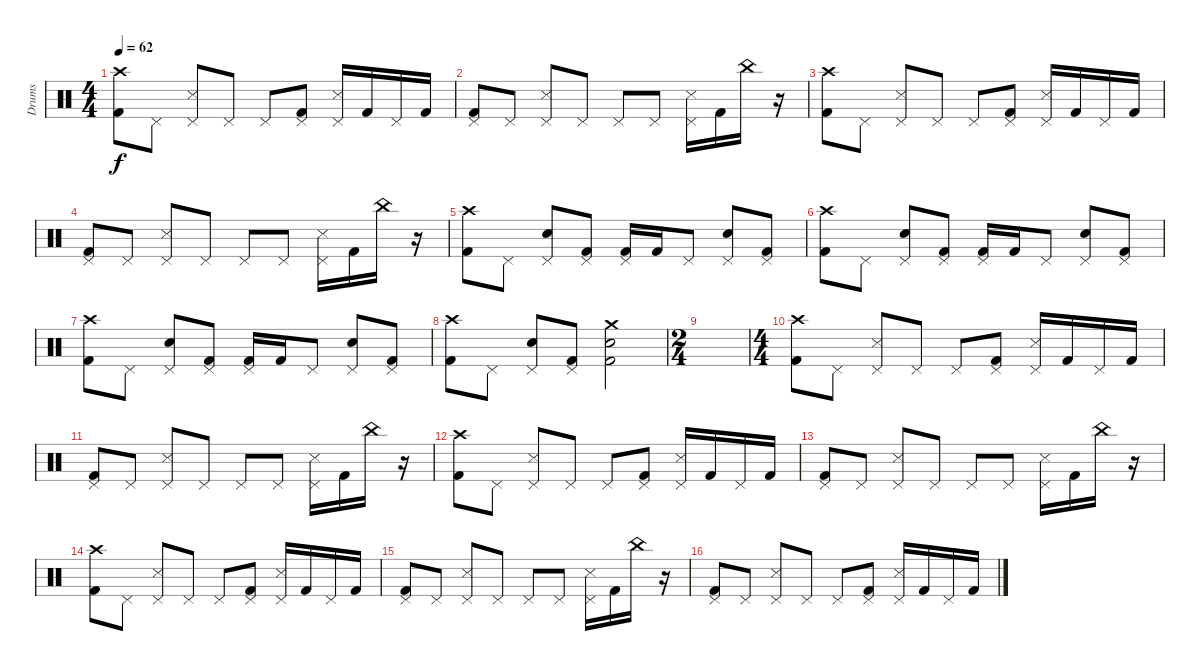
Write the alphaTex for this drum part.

\track ("Drums" "Drums") {instrument percussion}
\staff {score}
\articulation defaults
\ts (4 4)
\tempo 62
\clef neutral
\ks c
("Crash high (hit)" "Kick (hit) 2").8{dy f} "Pedal Hi-Hat (hit)".8 ("Pedal Hi-Hat (hit)" "Snare (side stick) 3").8 "Pedal Hi-Hat (hit)".8 "Pedal Hi-Hat (hit)".8 ("Pedal Hi-Hat (hit)" "Kick (hit) 2").8 ("Pedal Hi-Hat (hit)" "Snare (side stick) 3").16 "Kick (hit) 2".16 "Pedal Hi-Hat (hit)".16 "Kick (hit) 2".16 |
("Pedal Hi-Hat (hit)" "Kick (hit) 2").8 "Pedal Hi-Hat (hit)".8 ("Pedal Hi-Hat (hit)" "Snare (side stick) 3").8 "Pedal Hi-Hat (hit)".8 "Pedal Hi-Hat (hit)".8 "Pedal Hi-Hat (hit)".8 ("Pedal Hi-Hat (hit)" "Snare (side stick) 3").16 "Kick (hit) 2".16 "China (hit)".16 r.16 |
("Crash high (hit)" "Kick (hit) 2").8 "Pedal Hi-Hat (hit)".8 ("Pedal Hi-Hat (hit)" "Snare (side stick) 3").8 "Pedal Hi-Hat (hit)".8 "Pedal Hi-Hat (hit)".8 ("Pedal Hi-Hat (hit)" "Kick (hit) 2").8 ("Pedal Hi-Hat (hit)" "Snare (side stick) 3").16 "Kick (hit) 2".16 "Pedal Hi-Hat (hit)".16 "Kick (hit) 2".16 |
("Pedal Hi-Hat (hit)" "Kick (hit) 2").8 "Pedal Hi-Hat (hit)".8 ("Pedal Hi-Hat (hit)" "Snare (side stick) 3").8 "Pedal Hi-Hat (hit)".8 "Pedal Hi-Hat (hit)".8 "Pedal Hi-Hat (hit)".8 ("Pedal Hi-Hat (hit)" "Snare (side stick) 3").16 "Kick (hit) 2".16 "China (hit)".16 r.16 |
("Crash high (hit)" "Kick (hit) 2").8 "Pedal Hi-Hat (hit)".8 ("Pedal Hi-Hat (hit)" "Snare (hit) 2").8 ("Pedal Hi-Hat (hit)" "Kick (hit) 2").8 ("Pedal Hi-Hat (hit)" "Kick (hit) 2").16 "Kick (hit) 2".16 "Pedal Hi-Hat (hit)".8 ("Pedal Hi-Hat (hit)" "Snare (hit) 2").8 ("Pedal Hi-Hat (hit)" "Kick (hit) 2").8 |
("Crash high (hit)" "Kick (hit) 2").8 "Pedal Hi-Hat (hit)".8 ("Pedal Hi-Hat (hit)" "Snare (hit) 2").8 ("Pedal Hi-Hat (hit)" "Kick (hit) 2").8 ("Pedal Hi-Hat (hit)" "Kick (hit) 2").16 "Kick (hit) 2".16 "Pedal Hi-Hat (hit)".8 ("Pedal Hi-Hat (hit)" "Snare (hit) 2").8 ("Pedal Hi-Hat (hit)" "Kick (hit) 2").8 |
("Crash high (hit)" "Kick (hit) 2").8 "Pedal Hi-Hat (hit)".8 ("Pedal Hi-Hat (hit)" "Snare (hit) 2").8 ("Pedal Hi-Hat (hit)" "Kick (hit) 2").8 ("Pedal Hi-Hat (hit)" "Kick (hit) 2").16 "Kick (hit) 2".16 "Pedal Hi-Hat (hit)".8 ("Pedal Hi-Hat (hit)" "Snare (hit) 2").8 ("Pedal Hi-Hat (hit)" "Kick (hit) 2").8 |
("Crash high (hit)" "Kick (hit) 2").8 "Pedal Hi-Hat (hit)".8 ("Pedal Hi-Hat (hit)" "Snare (hit) 2").8 ("Pedal Hi-Hat (hit)" "Kick (hit) 2").8 ("Crash medium (hit)" "Snare (hit) 2" "Kick (hit) 2").2 |
\ts (2 4)
|
\ts (4 4)
("Crash high (hit)" "Kick (hit) 2").8 "Pedal Hi-Hat (hit)".8 ("Pedal Hi-Hat (hit)" "Snare (side stick) 3").8 "Pedal Hi-Hat (hit)".8 "Pedal Hi-Hat (hit)".8 ("Pedal Hi-Hat (hit)" "Kick (hit) 2").8 ("Pedal Hi-Hat (hit)" "Snare (side stick) 3").16 "Kick (hit) 2".16 "Pedal Hi-Hat (hit)".16 "Kick (hit) 2".16 |
("Pedal Hi-Hat (hit)" "Kick (hit) 2").8 "Pedal Hi-Hat (hit)".8 ("Pedal Hi-Hat (hit)" "Snare (side stick) 3").8 "Pedal Hi-Hat (hit)".8 "Pedal Hi-Hat (hit)".8 "Pedal Hi-Hat (hit)".8 ("Pedal Hi-Hat (hit)" "Snare (side stick) 3").16 "Kick (hit) 2".16 "China (hit)".16 r.16 |
("Crash high (hit)" "Kick (hit) 2").8 "Pedal Hi-Hat (hit)".8 ("Pedal Hi-Hat (hit)" "Snare (side stick) 3").8 "Pedal Hi-Hat (hit)".8 "Pedal Hi-Hat (hit)".8 ("Pedal Hi-Hat (hit)" "Kick (hit) 2").8 ("Pedal Hi-Hat (hit)" "Snare (side stick) 3").16 "Kick (hit) 2".16 "Pedal Hi-Hat (hit)".16 "Kick (hit) 2".16 |
("Pedal Hi-Hat (hit)" "Kick (hit) 2").8 "Pedal Hi-Hat (hit)".8 ("Pedal Hi-Hat (hit)" "Snare (side stick) 3").8 "Pedal Hi-Hat (hit)".8 "Pedal Hi-Hat (hit)".8 "Pedal Hi-Hat (hit)".8 ("Pedal Hi-Hat (hit)" "Snare (side stick) 3").16 "Kick (hit) 2".16 "China (hit)".16 r.16 |
("Crash high (hit)" "Kick (hit) 2").8 "Pedal Hi-Hat (hit)".8 ("Pedal Hi-Hat (hit)" "Snare (side stick) 3").8 "Pedal Hi-Hat (hit)".8 "Pedal Hi-Hat (hit)".8 ("Pedal Hi-Hat (hit)" "Kick (hit) 2").8 ("Pedal Hi-Hat (hit)" "Snare (side stick) 3").16 "Kick (hit) 2".16 "Pedal Hi-Hat (hit)".16 "Kick (hit) 2".16 |
("Pedal Hi-Hat (hit)" "Kick (hit) 2").8 "Pedal Hi-Hat (hit)".8 ("Pedal Hi-Hat (hit)" "Snare (side stick) 3").8 "Pedal Hi-Hat (hit)".8 "Pedal Hi-Hat (hit)".8 "Pedal Hi-Hat (hit)".8 ("Pedal Hi-Hat (hit)" "Snare (side stick) 3").16 "Kick (hit) 2".16 "China (hit)".16 r.16 |
("Pedal Hi-Hat (hit)" "Kick (hit) 2").8 "Pedal Hi-Hat (hit)".8 ("Pedal Hi-Hat (hit)" "Snare (side stick) 3").8 "Pedal Hi-Hat (hit)".8 "Pedal Hi-Hat (hit)".8 ("Pedal Hi-Hat (hit)" "Kick (hit) 2").8 ("Pedal Hi-Hat (hit)" "Snare (side stick) 3").16 "Kick (hit) 2".16 "Pedal Hi-Hat (hit)".16 "Kick (hit) 2".16
